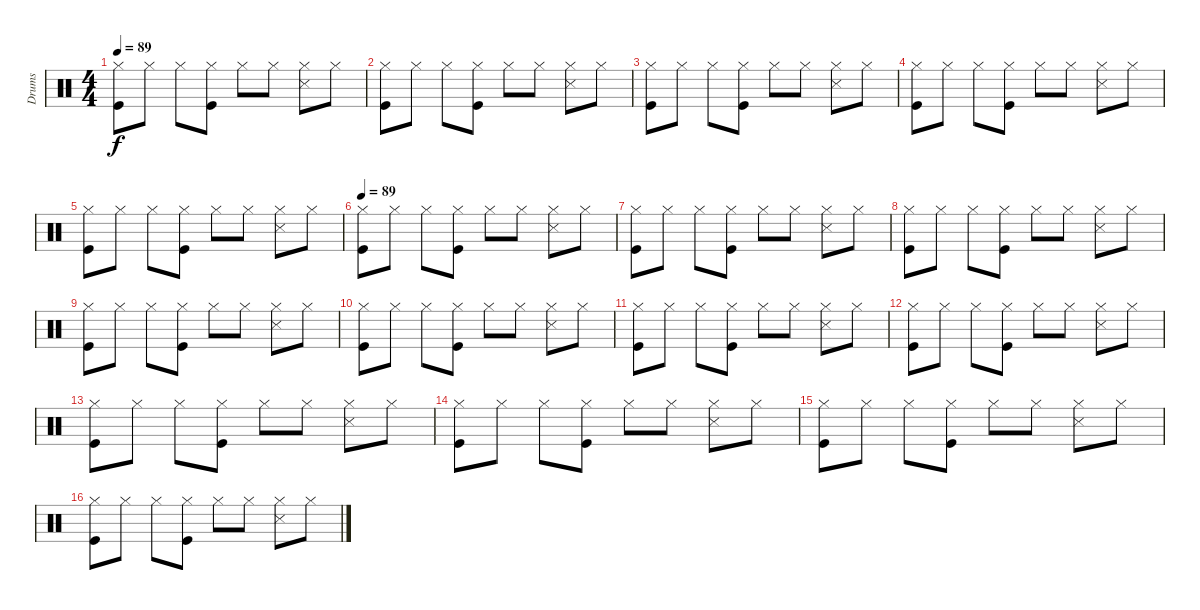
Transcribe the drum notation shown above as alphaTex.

\track ("Drums" "Drums") {instrument percussion}
\staff {score}
\articulation defaults
\ts (4 4)
\tempo 89
\clef neutral
\ks c
("Hi-Hat (closed)" "Kick (hit)").8{dy f} "Hi-Hat (closed)".8 "Hi-Hat (closed)".8 ("Hi-Hat (closed)" "Kick (hit)").8 "Hi-Hat (closed)".8 "Hi-Hat (closed)".8 ("Hi-Hat (closed)" "Snare (side stick) 3").8 "Hi-Hat (closed)".8 |
("Hi-Hat (closed)" "Kick (hit)").8 "Hi-Hat (closed)".8 "Hi-Hat (closed)".8 ("Hi-Hat (closed)" "Kick (hit)").8 "Hi-Hat (closed)".8 "Hi-Hat (closed)".8 ("Hi-Hat (closed)" "Snare (side stick) 3").8 "Hi-Hat (closed)".8 |
("Hi-Hat (closed)" "Kick (hit)").8 "Hi-Hat (closed)".8 "Hi-Hat (closed)".8 ("Hi-Hat (closed)" "Kick (hit)").8 "Hi-Hat (closed)".8 "Hi-Hat (closed)".8 ("Hi-Hat (closed)" "Snare (side stick) 3").8 "Hi-Hat (closed)".8 |
("Hi-Hat (closed)" "Kick (hit)").8 "Hi-Hat (closed)".8 "Hi-Hat (closed)".8 ("Hi-Hat (closed)" "Kick (hit)").8 "Hi-Hat (closed)".8 "Hi-Hat (closed)".8 ("Hi-Hat (closed)" "Snare (side stick) 3").8 "Hi-Hat (closed)".8 |
("Hi-Hat (closed)" "Kick (hit)").8 "Hi-Hat (closed)".8 "Hi-Hat (closed)".8 ("Hi-Hat (closed)" "Kick (hit)").8 "Hi-Hat (closed)".8 "Hi-Hat (closed)".8 ("Hi-Hat (closed)" "Snare (side stick) 3").8 "Hi-Hat (closed)".8 |
\tempo 89
("Hi-Hat (closed)" "Kick (hit)").8 "Hi-Hat (closed)".8 "Hi-Hat (closed)".8 ("Hi-Hat (closed)" "Kick (hit)").8 "Hi-Hat (closed)".8 "Hi-Hat (closed)".8 ("Hi-Hat (closed)" "Snare (side stick) 3").8 "Hi-Hat (closed)".8 |
("Hi-Hat (closed)" "Kick (hit)").8 "Hi-Hat (closed)".8 "Hi-Hat (closed)".8 ("Hi-Hat (closed)" "Kick (hit)").8 "Hi-Hat (closed)".8 "Hi-Hat (closed)".8 ("Hi-Hat (closed)" "Snare (side stick) 3").8 "Hi-Hat (closed)".8 |
("Hi-Hat (closed)" "Kick (hit)").8 "Hi-Hat (closed)".8 "Hi-Hat (closed)".8 ("Hi-Hat (closed)" "Kick (hit)").8 "Hi-Hat (closed)".8 "Hi-Hat (closed)".8 ("Hi-Hat (closed)" "Snare (side stick) 3").8 "Hi-Hat (closed)".8 |
("Hi-Hat (closed)" "Kick (hit)").8 "Hi-Hat (closed)".8 "Hi-Hat (closed)".8 ("Hi-Hat (closed)" "Kick (hit)").8 "Hi-Hat (closed)".8 "Hi-Hat (closed)".8 ("Hi-Hat (closed)" "Snare (side stick) 3").8 "Hi-Hat (closed)".8 |
("Hi-Hat (closed)" "Kick (hit)").8 "Hi-Hat (closed)".8 "Hi-Hat (closed)".8 ("Hi-Hat (closed)" "Kick (hit)").8 "Hi-Hat (closed)".8 "Hi-Hat (closed)".8 ("Hi-Hat (closed)" "Snare (side stick) 3").8 "Hi-Hat (closed)".8 |
("Hi-Hat (closed)" "Kick (hit)").8 "Hi-Hat (closed)".8 "Hi-Hat (closed)".8 ("Hi-Hat (closed)" "Kick (hit)").8 "Hi-Hat (closed)".8 "Hi-Hat (closed)".8 ("Hi-Hat (closed)" "Snare (side stick) 3").8 "Hi-Hat (closed)".8 |
("Hi-Hat (closed)" "Kick (hit)").8 "Hi-Hat (closed)".8 "Hi-Hat (closed)".8 ("Hi-Hat (closed)" "Kick (hit)").8 "Hi-Hat (closed)".8 "Hi-Hat (closed)".8 ("Hi-Hat (closed)" "Snare (side stick) 3").8 "Hi-Hat (closed)".8 |
("Hi-Hat (closed)" "Kick (hit)").8 "Hi-Hat (closed)".8 "Hi-Hat (closed)".8 ("Hi-Hat (closed)" "Kick (hit)").8 "Hi-Hat (closed)".8 "Hi-Hat (closed)".8 ("Hi-Hat (closed)" "Snare (side stick) 3").8 "Hi-Hat (closed)".8 |
("Hi-Hat (closed)" "Kick (hit)").8 "Hi-Hat (closed)".8 "Hi-Hat (closed)".8 ("Hi-Hat (closed)" "Kick (hit)").8 "Hi-Hat (closed)".8 "Hi-Hat (closed)".8 ("Hi-Hat (closed)" "Snare (side stick) 3").8 "Hi-Hat (closed)".8 |
("Hi-Hat (closed)" "Kick (hit)").8 "Hi-Hat (closed)".8 "Hi-Hat (closed)".8 ("Hi-Hat (closed)" "Kick (hit)").8 "Hi-Hat (closed)".8 "Hi-Hat (closed)".8 ("Hi-Hat (closed)" "Snare (side stick) 3").8 "Hi-Hat (closed)".8 |
("Hi-Hat (closed)" "Kick (hit)").8 "Hi-Hat (closed)".8 "Hi-Hat (closed)".8 ("Hi-Hat (closed)" "Kick (hit)").8 "Hi-Hat (closed)".8 "Hi-Hat (closed)".8 ("Hi-Hat (closed)" "Snare (side stick) 3").8 "Hi-Hat (closed)".8
